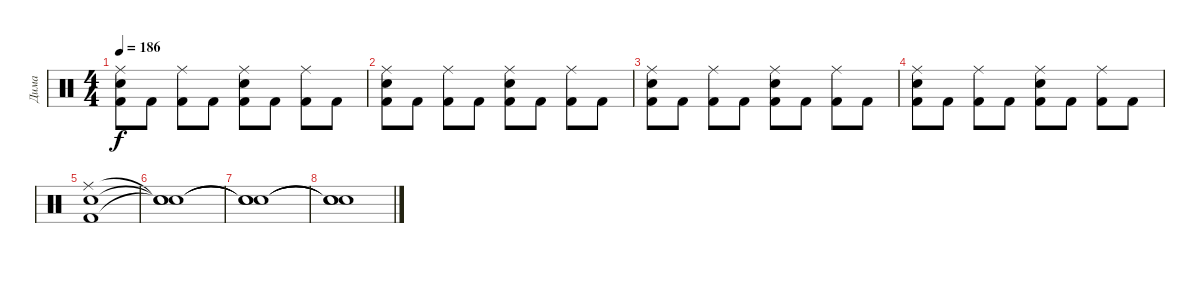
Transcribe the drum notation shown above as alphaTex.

\track ("Дима" "Дима") {instrument percussion}
\staff {score}
\articulation defaults
\ts (4 4)
\tempo 186
\clef neutral
\ks c
("Ride (middle)" "Snare (hit) 2" "Kick (hit) 2").8{dy f} "Kick (hit) 2".8 ("Ride (middle)" "Kick (hit) 2").8 "Kick (hit) 2".8 ("Ride (middle)" "Snare (hit) 2" "Kick (hit) 2").8 "Kick (hit) 2".8 ("Ride (middle)" "Kick (hit) 2").8 "Kick (hit) 2".8 |
("Ride (middle)" "Snare (hit) 2" "Kick (hit) 2").8 "Kick (hit) 2".8 ("Ride (middle)" "Kick (hit) 2").8 "Kick (hit) 2".8 ("Ride (middle)" "Snare (hit) 2" "Kick (hit) 2").8 "Kick (hit) 2".8 ("Ride (middle)" "Kick (hit) 2").8 "Kick (hit) 2".8 |
("Ride (middle)" "Snare (hit) 2" "Kick (hit) 2").8 "Kick (hit) 2".8 ("Ride (middle)" "Kick (hit) 2").8 "Kick (hit) 2".8 ("Ride (middle)" "Snare (hit) 2" "Kick (hit) 2").8 "Kick (hit) 2".8 ("Ride (middle)" "Kick (hit) 2").8 "Kick (hit) 2".8 |
("Ride (middle)" "Snare (hit) 2" "Kick (hit) 2").8 "Kick (hit) 2".8 ("Ride (middle)" "Kick (hit) 2").8 "Kick (hit) 2".8 ("Ride (middle)" "Snare (hit) 2" "Kick (hit) 2").8 "Kick (hit) 2".8 ("Ride (middle)" "Kick (hit) 2").8 "Kick (hit) 2".8 |
("Ride (middle)" "Snare (hit) 2" "Kick (hit) 2").1 |
("Snare (hit)"{t} "Snare (hit)"{t} "Snare (hit)"{t}).1 |
("Snare (hit)"{t} "Snare (hit)"{t} "Snare (hit)"{t}).1 |
("Snare (hit)"{t} "Snare (hit)"{t} "Snare (hit)"{t}).1
